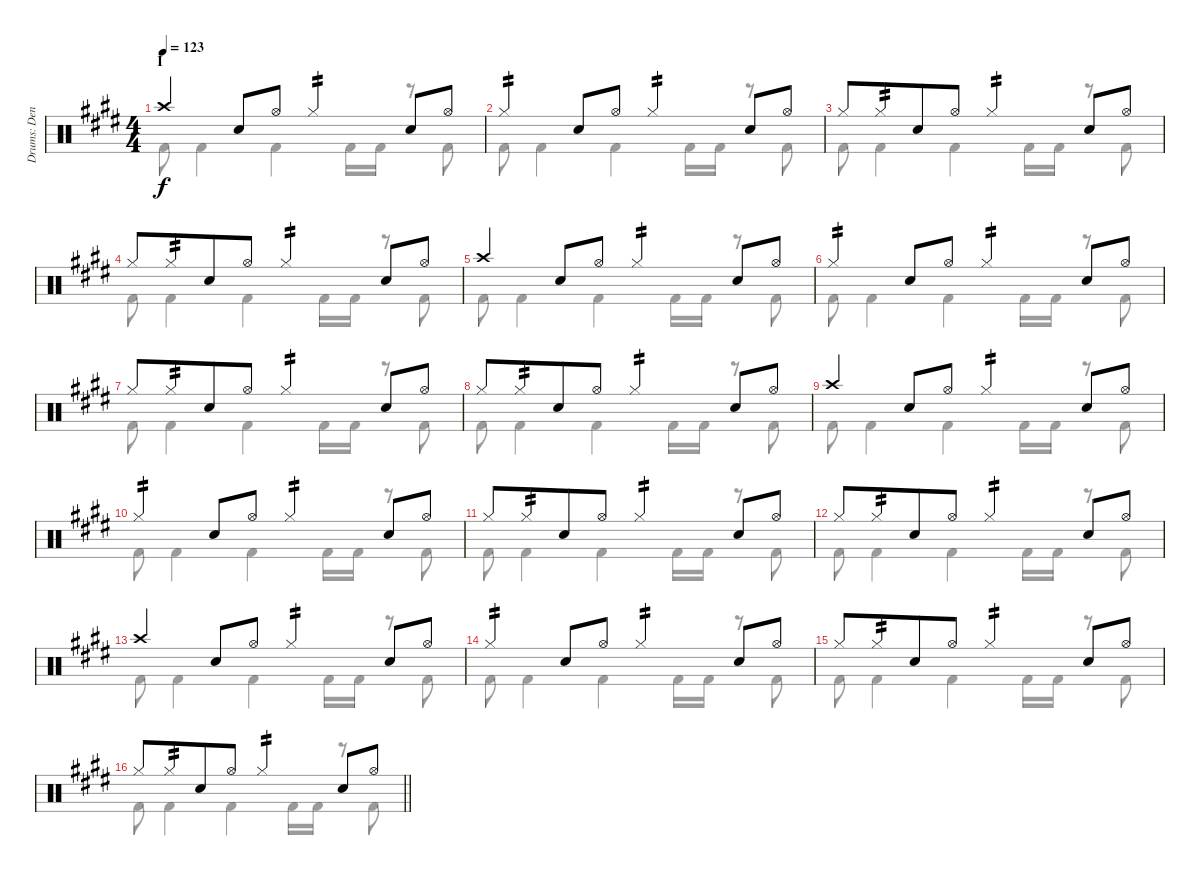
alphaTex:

\track ("Drums: Denny" "Drums: Den") {instrument percussion}
\staff {score}
\articulation defaults
\voice
\ts (4 4)
\section ("" "I")
\tempo 123
\clef neutral
\ks e "Crash high (hit)".4{dy f} "Snare (hit) 2".8 "Hi-Hat (open)".8 "Hi-Hat (closed)".4{tp 2} "Snare (hit) 2".8 "Hi-Hat (open)".8
|
"Hi-Hat (closed)".4{tp 2} "Snare (hit) 2".8 "Hi-Hat (open)".8 "Hi-Hat (closed)".4{tp 2} "Snare (hit) 2".8 "Hi-Hat (open)".8 |
"Hi-Hat (closed)".8 "Hi-Hat (closed)".8{tp 2 beam merge} "Snare (hit) 2".8 "Hi-Hat (open)".8 "Hi-Hat (closed)".4{tp 2} "Snare (hit) 2".8 "Hi-Hat (open)".8 |
"Hi-Hat (closed)".8 "Hi-Hat (closed)".8{tp 2 beam merge} "Snare (hit) 2".8 "Hi-Hat (open)".8 "Hi-Hat (closed)".4{tp 2} "Snare (hit) 2".8 "Hi-Hat (open)".8 |
"Crash high (hit)".4 "Snare (hit) 2".8 "Hi-Hat (open)".8 "Hi-Hat (closed)".4{tp 2} "Snare (hit) 2".8 "Hi-Hat (open)".8 |
"Hi-Hat (closed)".4{tp 2} "Snare (hit) 2".8 "Hi-Hat (open)".8 "Hi-Hat (closed)".4{tp 2} "Snare (hit) 2".8 "Hi-Hat (open)".8 |
"Hi-Hat (closed)".8 "Hi-Hat (closed)".8{tp 2 beam merge} "Snare (hit) 2".8 "Hi-Hat (open)".8 "Hi-Hat (closed)".4{tp 2} "Snare (hit) 2".8 "Hi-Hat (open)".8 |
"Hi-Hat (closed)".8 "Hi-Hat (closed)".8{tp 2 beam merge} "Snare (hit) 2".8 "Hi-Hat (open)".8 "Hi-Hat (closed)".4{tp 2} "Snare (hit) 2".8 "Hi-Hat (open)".8 |
"Crash high (hit)".4 "Snare (hit) 2".8 "Hi-Hat (open)".8 "Hi-Hat (closed)".4{tp 2} "Snare (hit) 2".8 "Hi-Hat (open)".8 |
"Hi-Hat (closed)".4{tp 2} "Snare (hit) 2".8 "Hi-Hat (open)".8 "Hi-Hat (closed)".4{tp 2} "Snare (hit) 2".8 "Hi-Hat (open)".8 |
"Hi-Hat (closed)".8 "Hi-Hat (closed)".8{tp 2 beam merge} "Snare (hit) 2".8 "Hi-Hat (open)".8 "Hi-Hat (closed)".4{tp 2} "Snare (hit) 2".8 "Hi-Hat (open)".8 |
"Hi-Hat (closed)".8 "Hi-Hat (closed)".8{tp 2 beam merge} "Snare (hit) 2".8 "Hi-Hat (open)".8 "Hi-Hat (closed)".4{tp 2} "Snare (hit) 2".8 "Hi-Hat (open)".8 |
"Crash high (hit)".4 "Snare (hit) 2".8 "Hi-Hat (open)".8 "Hi-Hat (closed)".4{tp 2} "Snare (hit) 2".8 "Hi-Hat (open)".8 |
"Hi-Hat (closed)".4{tp 2} "Snare (hit) 2".8 "Hi-Hat (open)".8 "Hi-Hat (closed)".4{tp 2} "Snare (hit) 2".8 "Hi-Hat (open)".8 |
"Hi-Hat (closed)".8 "Hi-Hat (closed)".8{tp 2 beam merge} "Snare (hit) 2".8 "Hi-Hat (open)".8 "Hi-Hat (closed)".4{tp 2} "Snare (hit) 2".8 "Hi-Hat (open)".8 |
\barLineRight lightlight "Hi-Hat (closed)".8 "Hi-Hat (closed)".8{tp 2 beam merge} "Snare (hit) 2".8 "Hi-Hat (open)".8 "Hi-Hat (closed)".4{tp 2} "Snare (hit) 2".8 "Hi-Hat (open)".8
\voice
\clef neutral
\ottava regular
\simile none
\ks e "Kick (hit) 2".8{dy f} "Kick (hit) 2".4 "Kick (hit) 2".4 "Kick (hit) 2".16 "Kick (hit) 2".16
r.8 "Kick (hit) 2".8 |
"Kick (hit) 2".8 "Kick (hit) 2".4 "Kick (hit) 2".4 "Kick (hit) 2".16 "Kick (hit) 2".16 r.8 "Kick (hit) 2".8 |
"Kick (hit) 2".8 "Kick (hit) 2".4 "Kick (hit) 2".4 "Kick (hit) 2".16 "Kick (hit) 2".16 r.8 "Kick (hit) 2".8 |
"Kick (hit) 2".8 "Kick (hit) 2".4 "Kick (hit) 2".4 "Kick (hit) 2".16 "Kick (hit) 2".16 r.8 "Kick (hit) 2".8 |
"Kick (hit) 2".8 "Kick (hit) 2".4 "Kick (hit) 2".4 "Kick (hit) 2".16 "Kick (hit) 2".16 r.8 "Kick (hit) 2".8 |
"Kick (hit) 2".8 "Kick (hit) 2".4 "Kick (hit) 2".4 "Kick (hit) 2".16 "Kick (hit) 2".16 r.8 "Kick (hit) 2".8 |
"Kick (hit) 2".8 "Kick (hit) 2".4 "Kick (hit) 2".4 "Kick (hit) 2".16 "Kick (hit) 2".16 r.8 "Kick (hit) 2".8 |
"Kick (hit) 2".8 "Kick (hit) 2".4 "Kick (hit) 2".4 "Kick (hit) 2".16 "Kick (hit) 2".16 r.8 "Kick (hit) 2".8 |
"Kick (hit) 2".8 "Kick (hit) 2".4 "Kick (hit) 2".4 "Kick (hit) 2".16 "Kick (hit) 2".16 r.8 "Kick (hit) 2".8 |
"Kick (hit) 2".8 "Kick (hit) 2".4 "Kick (hit) 2".4 "Kick (hit) 2".16 "Kick (hit) 2".16 r.8 "Kick (hit) 2".8 |
"Kick (hit) 2".8 "Kick (hit) 2".4 "Kick (hit) 2".4 "Kick (hit) 2".16 "Kick (hit) 2".16 r.8 "Kick (hit) 2".8 |
"Kick (hit) 2".8 "Kick (hit) 2".4 "Kick (hit) 2".4 "Kick (hit) 2".16 "Kick (hit) 2".16 r.8 "Kick (hit) 2".8 |
"Kick (hit) 2".8 "Kick (hit) 2".4 "Kick (hit) 2".4 "Kick (hit) 2".16 "Kick (hit) 2".16 r.8 "Kick (hit) 2".8 |
"Kick (hit) 2".8 "Kick (hit) 2".4 "Kick (hit) 2".4 "Kick (hit) 2".16 "Kick (hit) 2".16 r.8 "Kick (hit) 2".8 |
"Kick (hit) 2".8 "Kick (hit) 2".4 "Kick (hit) 2".4 "Kick (hit) 2".16 "Kick (hit) 2".16 r.8 "Kick (hit) 2".8 |
\barLineRight lightlight "Kick (hit) 2".8 "Kick (hit) 2".4 "Kick (hit) 2".4 "Kick (hit) 2".16 "Kick (hit) 2".16
r.8 "Kick (hit) 2".8
